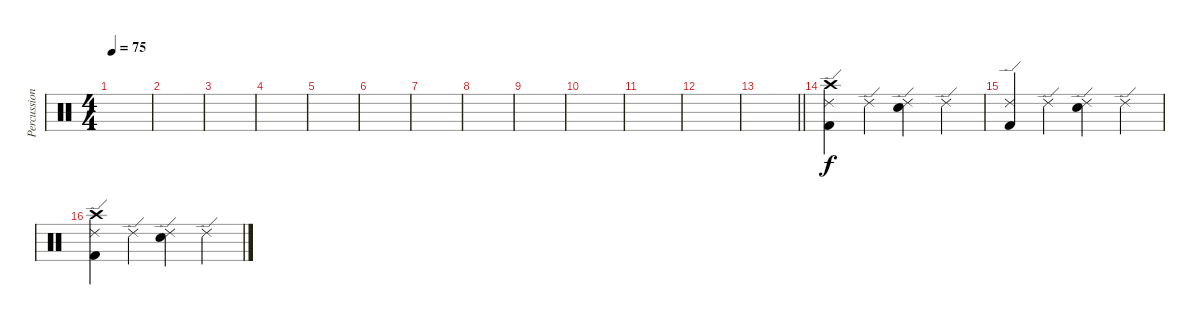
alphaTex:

\track ("Percussion" "Percussion") {instrument percussion}
\staff {score}
\articulation defaults
\ts (4 4)
\tempo 75
\clef neutral
\ks c
|
|
|
|
|
|
|
|
|
|
|
|
\barLineRight lightlight
|
\section ("" "")
("Crash high (hit)" "Ride (edge) 2" "Kick (hit) 2").4 "Ride (edge) 2".4 ("Ride (edge) 2" "Electric Snare (hit)").4 "Ride (edge) 2".4 |
("Ride (edge) 2" "Kick (hit) 2").4 "Ride (edge) 2".4 ("Ride (edge) 2" "Electric Snare (hit)").4 "Ride (edge) 2".4 |
("Crash high (hit)" "Ride (edge) 2" "Kick (hit) 2").4 "Ride (edge) 2".4 ("Ride (edge) 2" "Electric Snare (hit)").4 "Ride (edge) 2".4
